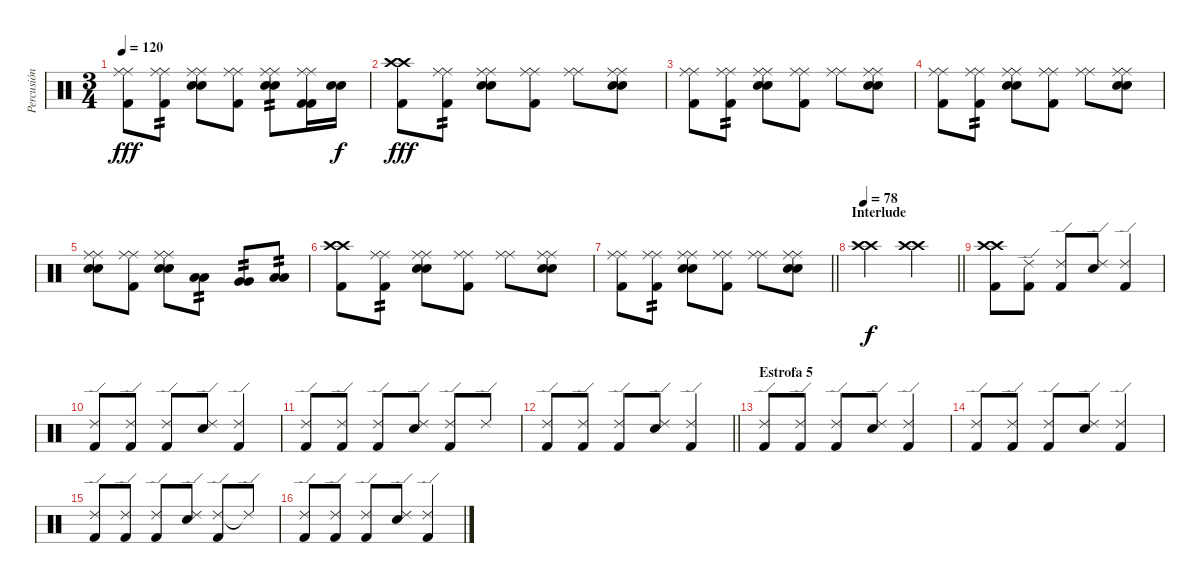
\track ("Percusión" "Percusión") {instrument percussion}
\staff {score}
\articulation defaults
\ts (3 4)
\tempo 120
\clef neutral
\ks c
("Ride (middle)" "Ride (middle)" "Kick (hit) 2").8{dy fff} ("Ride (middle)" "Ride (middle)" "Kick (hit) 2").8{tp 2} ("Ride (middle)" "Ride (middle)" "Electric Snare (hit)" "Electric Snare (hit)").8 ("Ride (middle)" "Ride (middle)" "Kick (hit) 2").8 ("Ride (middle)" "Ride (middle)" "Electric Snare (hit)" "Electric Snare (hit)").8{tp 2} ("Ride (middle)" "Ride (middle)" "Kick (hit) 2" "Kick (hit) 2").16 ("Electric Snare (hit)" "Electric Snare (hit)").16{dy f} |
("Crash high (hit)" "Crash high (hit)" "Kick (hit) 2").8{dy fff} ("Ride (middle)" "Ride (middle)" "Kick (hit) 2").8{tp 2} ("Ride (middle)" "Ride (middle)" "Electric Snare (hit)" "Electric Snare (hit)").8 ("Ride (middle)" "Ride (middle)" "Kick (hit) 2").8 ("Ride (middle)" "Ride (middle)").8 ("Ride (middle)" "Ride (middle)" "Electric Snare (hit)" "Electric Snare (hit)").8 |
("Ride (middle)" "Ride (middle)" "Kick (hit) 2").8 ("Ride (middle)" "Ride (middle)" "Kick (hit) 2").8{tp 2} ("Ride (middle)" "Ride (middle)" "Electric Snare (hit)" "Electric Snare (hit)").8 ("Ride (middle)" "Ride (middle)" "Kick (hit) 2").8 ("Ride (middle)" "Ride (middle)").8 ("Ride (middle)" "Ride (middle)" "Electric Snare (hit)" "Electric Snare (hit)").8 |
("Ride (middle)" "Ride (middle)" "Kick (hit) 2").8 ("Ride (middle)" "Ride (middle)" "Kick (hit) 2").8{tp 2} ("Ride (middle)" "Ride (middle)" "Electric Snare (hit)" "Electric Snare (hit)").8 ("Ride (middle)" "Ride (middle)" "Kick (hit) 2").8 ("Ride (middle)" "Ride (middle)").8 ("Ride (middle)" "Ride (middle)" "Electric Snare (hit)" "Electric Snare (hit)").8 |
("Ride (middle)" "Ride (middle)" "Electric Snare (hit)" "Electric Snare (hit)").8 ("Ride (middle)" "Ride (middle)" "Kick (hit) 2").8 ("Ride (middle)" "Ride (middle)" "Electric Snare (hit)" "Electric Snare (hit)").8 ("Low Tom (hit)" "Low Tom (hit)").8{tp 2} ("Very Low Tom (hit)" "Very Low Tom (hit)").8{tp 2} ("Low Floor Tom (hit)" "Low Floor Tom (hit)").8{tp 2} |
("Crash high (hit)" "Crash high (hit)" "Kick (hit) 2").8 ("Ride (middle)" "Ride (middle)" "Kick (hit) 2").8{tp 2} ("Ride (middle)" "Ride (middle)" "Electric Snare (hit)" "Electric Snare (hit)").8 ("Ride (middle)" "Ride (middle)" "Kick (hit) 2").8 ("Ride (middle)" "Ride (middle)").8 ("Ride (middle)" "Ride (middle)" "Electric Snare (hit)" "Electric Snare (hit)").8 |
\barLineRight lightlight
("Ride (middle)" "Ride (middle)" "Kick (hit) 2").8 ("Ride (middle)" "Ride (middle)" "Kick (hit) 2").8{tp 2} ("Ride (middle)" "Ride (middle)" "Electric Snare (hit)" "Electric Snare (hit)").8 ("Ride (middle)" "Ride (middle)" "Kick (hit) 2").8 ("Ride (middle)" "Ride (middle)").8 ("Ride (middle)" "Ride (middle)" "Electric Snare (hit)" "Electric Snare (hit)").8 |
\section ("" "Interlude")
\tempo 78
\barLineRight lightlight
("Crash high (hit)" "Crash high (hit)").2{dy f} ("Crash high (hit)" "Crash high (hit)").4 |
("Crash high (hit)" "Crash high (hit)" "Kick (hit) 2").8 ("Ride (edge) 2" "Kick (hit) 2").8 ("Ride (edge) 2" "Kick (hit) 2").8 ("Ride (edge) 2" "Electric Snare (hit)").8 ("Ride (edge) 2" "Kick (hit) 2").4 |
("Ride (edge) 2" "Kick (hit) 2").8 ("Ride (edge) 2" "Kick (hit) 2").8 ("Ride (edge) 2" "Kick (hit) 2").8 ("Ride (edge) 2" "Electric Snare (hit)").8 ("Ride (edge) 2" "Kick (hit) 2").4 |
("Ride (edge) 2" "Kick (hit) 2").8 ("Ride (edge) 2" "Kick (hit) 2").8 ("Ride (edge) 2" "Kick (hit) 2").8 ("Ride (edge) 2" "Electric Snare (hit)").8 ("Ride (edge) 2" "Kick (hit) 2").8 "Ride (edge) 2".8 |
\barLineRight lightlight
("Ride (edge) 2" "Kick (hit) 2").8 ("Ride (edge) 2" "Kick (hit) 2").8 ("Ride (edge) 2" "Kick (hit) 2").8 ("Ride (edge) 2" "Electric Snare (hit)").8 ("Ride (edge) 2" "Kick (hit) 2").4 |
\section ("" "Estrofa 5")
("Ride (edge) 2" "Kick (hit) 2").8 ("Ride (edge) 2" "Kick (hit) 2").8 ("Ride (edge) 2" "Kick (hit) 2").8 ("Ride (edge) 2" "Electric Snare (hit)").8 ("Ride (edge) 2" "Kick (hit) 2").4 |
("Ride (edge) 2" "Kick (hit) 2").8 ("Ride (edge) 2" "Kick (hit) 2").8 ("Ride (edge) 2" "Kick (hit) 2").8 ("Ride (edge) 2" "Electric Snare (hit)").8 ("Ride (edge) 2" "Kick (hit) 2").4 |
("Ride (edge) 2" "Kick (hit) 2").8 ("Ride (edge) 2" "Kick (hit) 2").8 ("Ride (edge) 2" "Kick (hit) 2").8 ("Ride (edge) 2" "Electric Snare (hit)").8 ("Ride (edge) 2" "Kick (hit) 2").8 "Ride (edge) 2"{t}.8 |
("Ride (edge) 2" "Kick (hit) 2").8 ("Ride (edge) 2" "Kick (hit) 2").8 ("Ride (edge) 2" "Kick (hit) 2").8 ("Ride (edge) 2" "Electric Snare (hit)").8 ("Ride (edge) 2" "Kick (hit) 2").4
